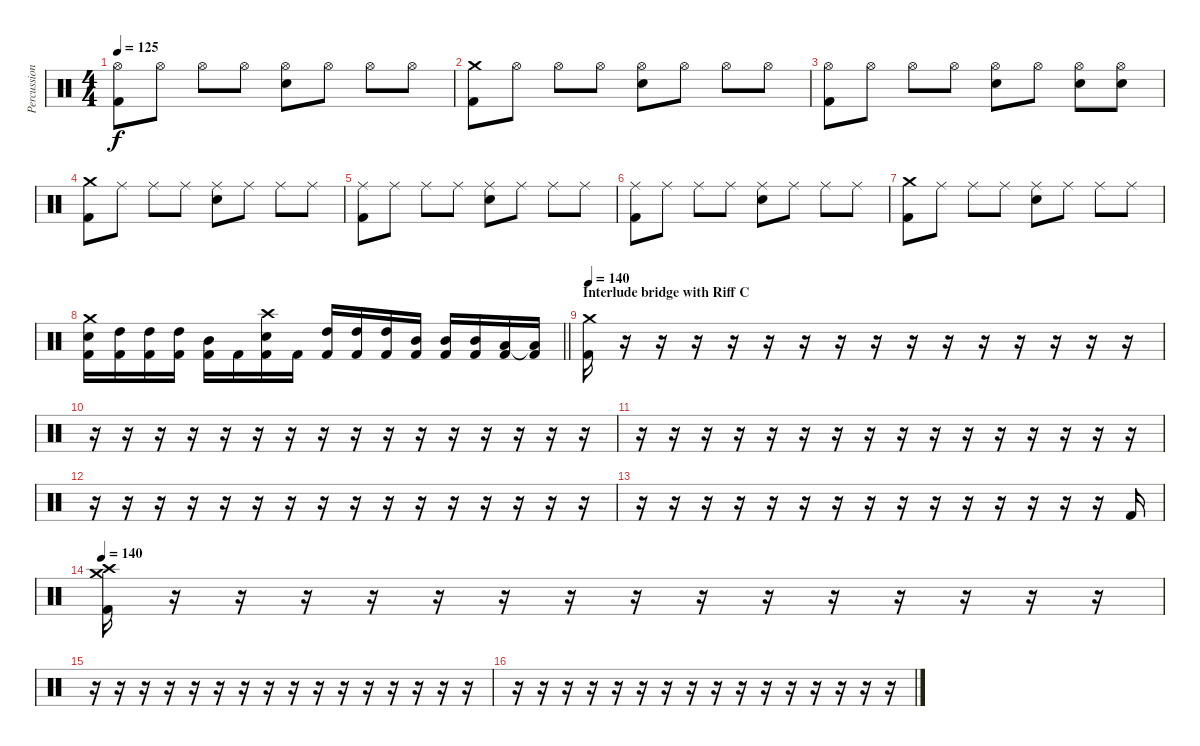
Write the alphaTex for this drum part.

\track ("Percussion" "Percussion") {instrument percussion}
\staff {score}
\articulation defaults
\ts (4 4)
\tempo 125
\clef neutral
\ks c
("Hi-Hat (open)" "Kick (hit) 2").8{dy f} "Hi-Hat (open)".8 "Hi-Hat (open)".8 "Hi-Hat (open)".8 ("Hi-Hat (open)" "Snare (hit) 2").8 "Hi-Hat (open)".8 "Hi-Hat (open)".8 "Hi-Hat (open)".8 |
("Crash medium (hit)" "Kick (hit) 2").8 "Hi-Hat (open)".8 "Hi-Hat (open)".8 "Hi-Hat (open)".8 ("Hi-Hat (open)" "Snare (hit) 2").8 "Hi-Hat (open)".8 "Hi-Hat (open)".8 "Hi-Hat (open)".8 |
("Hi-Hat (open)" "Kick (hit) 2").8 "Hi-Hat (open)".8 "Hi-Hat (open)".8 "Hi-Hat (open)".8 ("Hi-Hat (open)" "Snare (hit) 2").8 "Hi-Hat (open)".8 ("Hi-Hat (open)" "Snare (hit) 2").8 ("Hi-Hat (open)" "Snare (hit) 2").8 |
("Crash medium (hit)" "Kick (hit) 2").8 "Ride (middle)".8 "Ride (middle)".8 "Ride (middle)".8 ("Ride (middle)" "Snare (hit) 2").8 "Ride (middle)".8 "Ride (middle)".8 "Ride (middle)".8 |
("Ride (middle)" "Kick (hit) 2").8 "Ride (middle)".8 "Ride (middle)".8 "Ride (middle)".8 ("Ride (middle)" "Snare (hit) 2").8 "Ride (middle)".8 "Ride (middle)".8 "Ride (middle)".8 |
("Ride (middle)" "Kick (hit) 2").8 "Ride (middle)".8 "Ride (middle)".8 "Ride (middle)".8 ("Ride (middle)" "Snare (hit) 2").8 "Ride (middle)".8 "Ride (middle)".8 "Ride (middle)".8 |
("Crash medium (hit)" "Kick (hit) 2").8 "Ride (middle)".8 "Ride (middle)".8 "Ride (middle)".8 ("Ride (middle)" "Snare (hit) 2").8 "Ride (middle)".8 "Ride (middle)".8 "Ride (middle)".8 |
\barLineRight lightlight
("Crash medium (hit)" "Snare (hit) 2" "Kick (hit) 2").16 ("High Tom (hit)" "Kick (hit) 2").16 ("High Tom (hit)" "Kick (hit) 2").16 ("High Tom (hit)" "Kick (hit) 2").16 ("Mid Tom (hit)" "Kick (hit) 2").16 "Kick (hit) 2".16 ("Crash high (hit)" "Snare (hit) 2" "Kick (hit) 2").16 "Kick (hit) 2".16 ("High Tom (hit)" "Kick (hit) 2").16 ("High Tom (hit)" "Kick (hit) 2").16 ("High Tom (hit)" "Kick (hit) 2").16 ("Mid Tom (hit)" "Kick (hit) 2").16 ("Mid Tom (hit)" "Kick (hit) 2").16 ("Mid Tom (hit)" "Kick (hit) 2").16 ("Low Tom (hit)" "Kick (hit) 2").16 ("Low Tom (hit)"{t} "Kick (hit) 2").16 |
\section ("" "Interlude bridge with Riff C")
\tempo 140
("Crash medium (hit)" "Kick (hit) 2").16 r.16 r.16 r.16 r.16 r.16 r.16 r.16 r.16 r.16 r.16 r.16 r.16 r.16 r.16 r.16 |
r.16 r.16 r.16 r.16 r.16 r.16 r.16 r.16 r.16 r.16 r.16 r.16 r.16 r.16 r.16 r.16 |
r.16 r.16 r.16 r.16 r.16 r.16 r.16 r.16 r.16 r.16 r.16 r.16 r.16 r.16 r.16 r.16 |
r.16 r.16 r.16 r.16 r.16 r.16 r.16 r.16 r.16 r.16 r.16 r.16 r.16 r.16 r.16 r.16 |
r.16 r.16 r.16 r.16 r.16 r.16 r.16 r.16 r.16 r.16 r.16 r.16 r.16 r.16 r.16 "Kick (hit) 2".16 |
\tempo 140
("Crash medium (hit)" "Crash high (hit)" "Kick (hit) 2").16 r.16 r.16 r.16 r.16 r.16 r.16 r.16 r.16 r.16 r.16 r.16 r.16 r.16 r.16 r.16 |
r.16 r.16 r.16 r.16 r.16 r.16 r.16 r.16 r.16 r.16 r.16 r.16 r.16 r.16 r.16 r.16 |
r.16 r.16 r.16 r.16 r.16 r.16 r.16 r.16 r.16 r.16 r.16 r.16 r.16 r.16 r.16 r.16
